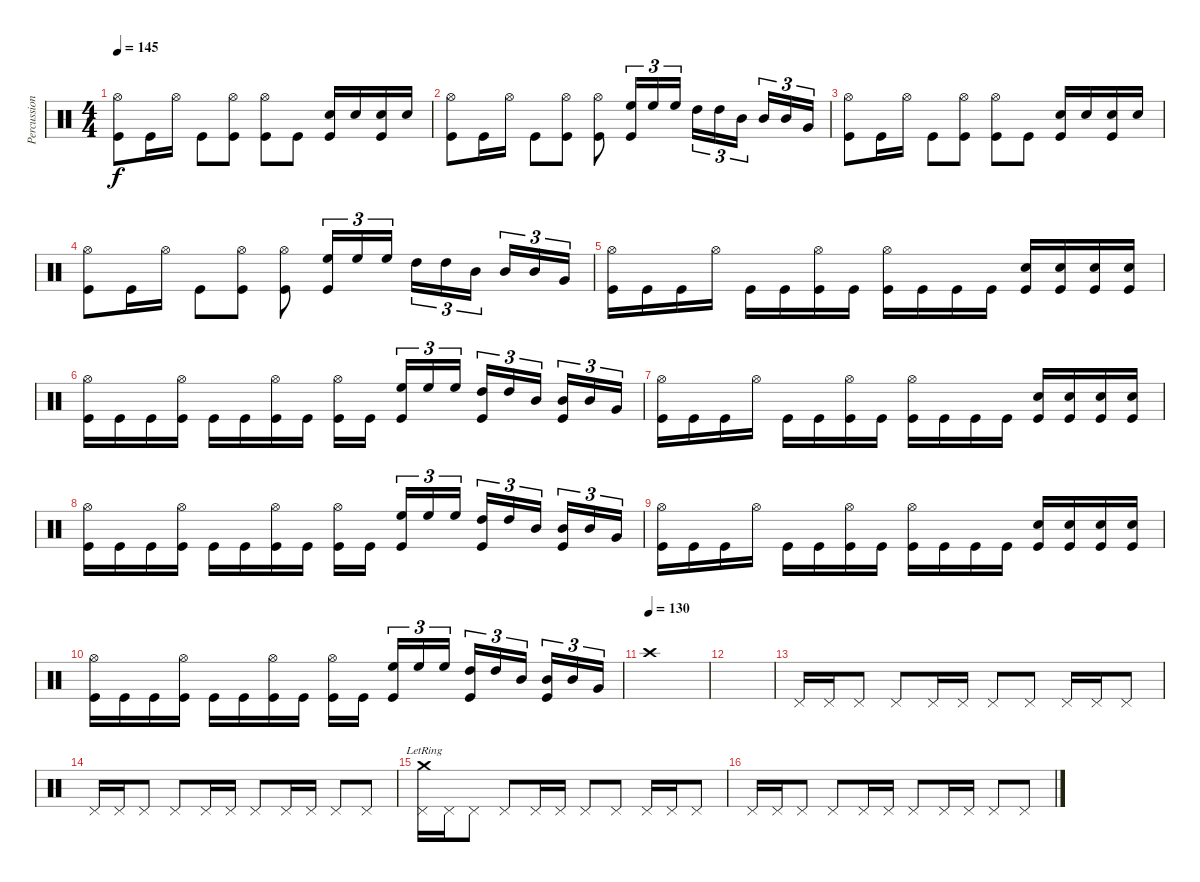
\track ("Percussions" "Percussion") {instrument percussion}
\staff {score}
\articulation defaults
\ts (4 4)
\tempo 145
\clef neutral
\ks c
("Hi-Hat (open)" "Kick (hit)").8{dy f} "Kick (hit)".16 "Hi-Hat (open)".16 "Kick (hit)".8 ("Hi-Hat (open)" "Kick (hit)").8 ("Hi-Hat (open)" "Kick (hit)").8 "Kick (hit)".8 ("Electric Snare (hit)" "Kick (hit)").16 "Electric Snare (hit)".16 ("Electric Snare (hit)" "Kick (hit)").16 "Electric Snare (hit)".16 |
("Hi-Hat (open)" "Kick (hit)").8 "Kick (hit)".16 "Hi-Hat (open)".16 "Kick (hit)".8 ("Hi-Hat (open)" "Kick (hit)").8 ("Hi-Hat (open)" "Kick (hit)").8 ("High Floor Tom (hit)" "Kick (hit)").16{tu (3 2)} "High Floor Tom (hit)".16{tu (3 2)} "High Floor Tom (hit)".16{tu (3 2)} "High Tom (hit)".16{tu (3 2)} "High Tom (hit)".16{tu (3 2)} "Mid Tom (hit)".16{tu (3 2)} "Mid Tom (hit)".16{tu (3 2)} "Mid Tom (hit)".16{tu (3 2)} "Very Low Tom (hit)".16{tu (3 2)} |
("Hi-Hat (open)" "Kick (hit)").8 "Kick (hit)".16 "Hi-Hat (open)".16 "Kick (hit)".8 ("Hi-Hat (open)" "Kick (hit)").8 ("Hi-Hat (open)" "Kick (hit)").8 "Kick (hit)".8 ("Electric Snare (hit)" "Kick (hit)").16 "Electric Snare (hit)".16 ("Electric Snare (hit)" "Kick (hit)").16 "Electric Snare (hit)".16 |
("Hi-Hat (open)" "Kick (hit)").8 "Kick (hit)".16 "Hi-Hat (open)".16 "Kick (hit)".8 ("Hi-Hat (open)" "Kick (hit)").8 ("Hi-Hat (open)" "Kick (hit)").8 ("High Floor Tom (hit)" "Kick (hit)").16{tu (3 2)} "High Floor Tom (hit)".16{tu (3 2)} "High Floor Tom (hit)".16{tu (3 2)} "High Tom (hit)".16{tu (3 2)} "High Tom (hit)".16{tu (3 2)} "Mid Tom (hit)".16{tu (3 2)} "Mid Tom (hit)".16{tu (3 2)} "Mid Tom (hit)".16{tu (3 2)} "Very Low Tom (hit)".16{tu (3 2)} |
("Hi-Hat (open)" "Kick (hit)").16 "Kick (hit)".16 "Kick (hit)".16 "Hi-Hat (open)".16 "Kick (hit)".16 "Kick (hit)".16 ("Hi-Hat (open)" "Kick (hit)").16 "Kick (hit)".16 ("Hi-Hat (open)" "Kick (hit)").16 "Kick (hit)".16 "Kick (hit)".16 "Kick (hit)".16 ("Electric Snare (hit)" "Kick (hit)").16 ("Electric Snare (hit)" "Kick (hit)").16 ("Electric Snare (hit)" "Kick (hit)").16 ("Electric Snare (hit)" "Kick (hit)").16 |
("Hi-Hat (open)" "Kick (hit)").16 "Kick (hit)".16 "Kick (hit)".16 ("Hi-Hat (open)" "Kick (hit)").16 "Kick (hit)".16 "Kick (hit)".16 ("Hi-Hat (open)" "Kick (hit)").16 "Kick (hit)".16 ("Hi-Hat (open)" "Kick (hit)").16 "Kick (hit)".16 ("High Floor Tom (hit)" "Kick (hit)").16{tu (3 2)} "High Floor Tom (hit)".16{tu (3 2)} "High Floor Tom (hit)".16{tu (3 2)} ("High Tom (hit)" "Kick (hit)").16{tu (3 2)} "High Tom (hit)".16{tu (3 2)} "Mid Tom (hit)".16{tu (3 2)} ("Mid Tom (hit)" "Kick (hit)").16{tu (3 2)} "Mid Tom (hit)".16{tu (3 2)} "Very Low Tom (hit)".16{tu (3 2)} |
("Hi-Hat (open)" "Kick (hit)").16 "Kick (hit)".16 "Kick (hit)".16 "Hi-Hat (open)".16 "Kick (hit)".16 "Kick (hit)".16 ("Hi-Hat (open)" "Kick (hit)").16 "Kick (hit)".16 ("Hi-Hat (open)" "Kick (hit)").16 "Kick (hit)".16 "Kick (hit)".16 "Kick (hit)".16 ("Electric Snare (hit)" "Kick (hit)").16 ("Electric Snare (hit)" "Kick (hit)").16 ("Electric Snare (hit)" "Kick (hit)").16 ("Electric Snare (hit)" "Kick (hit)").16 |
("Hi-Hat (open)" "Kick (hit)").16 "Kick (hit)".16 "Kick (hit)".16 ("Hi-Hat (open)" "Kick (hit)").16 "Kick (hit)".16 "Kick (hit)".16 ("Hi-Hat (open)" "Kick (hit)").16 "Kick (hit)".16 ("Hi-Hat (open)" "Kick (hit)").16 "Kick (hit)".16 ("High Floor Tom (hit)" "Kick (hit)").16{tu (3 2)} "High Floor Tom (hit)".16{tu (3 2)} "High Floor Tom (hit)".16{tu (3 2)} ("High Tom (hit)" "Kick (hit)").16{tu (3 2)} "High Tom (hit)".16{tu (3 2)} "Mid Tom (hit)".16{tu (3 2)} ("Mid Tom (hit)" "Kick (hit)").16{tu (3 2)} "Mid Tom (hit)".16{tu (3 2)} "Very Low Tom (hit)".16{tu (3 2)} |
("Hi-Hat (open)" "Kick (hit)").16 "Kick (hit)".16 "Kick (hit)".16 "Hi-Hat (open)".16 "Kick (hit)".16 "Kick (hit)".16 ("Hi-Hat (open)" "Kick (hit)").16 "Kick (hit)".16 ("Hi-Hat (open)" "Kick (hit)").16 "Kick (hit)".16 "Kick (hit)".16 "Kick (hit)".16 ("Electric Snare (hit)" "Kick (hit)").16 ("Electric Snare (hit)" "Kick (hit)").16 ("Electric Snare (hit)" "Kick (hit)").16 ("Electric Snare (hit)" "Kick (hit)").16 |
("Hi-Hat (open)" "Kick (hit)").16 "Kick (hit)".16 "Kick (hit)".16 ("Hi-Hat (open)" "Kick (hit)").16 "Kick (hit)".16 "Kick (hit)".16 ("Hi-Hat (open)" "Kick (hit)").16 "Kick (hit)".16 ("Hi-Hat (open)" "Kick (hit)").16 "Kick (hit)".16 ("High Floor Tom (hit)" "Kick (hit)").16{tu (3 2)} "High Floor Tom (hit)".16{tu (3 2)} "High Floor Tom (hit)".16{tu (3 2)} ("High Tom (hit)" "Kick (hit)").16{tu (3 2)} "High Tom (hit)".16{tu (3 2)} "Mid Tom (hit)".16{tu (3 2)} ("Mid Tom (hit)" "Kick (hit)").16{tu (3 2)} "Mid Tom (hit)".16{tu (3 2)} "Very Low Tom (hit)".16{tu (3 2)} |
\tempo (130)
"Crash high (hit)".1 |
|
"Pedal Hi-Hat (hit)".16 "Pedal Hi-Hat (hit)".16 "Pedal Hi-Hat (hit)".8 "Pedal Hi-Hat (hit)".8 "Pedal Hi-Hat (hit)".16 "Pedal Hi-Hat (hit)".16 "Pedal Hi-Hat (hit)".8 "Pedal Hi-Hat (hit)".8 "Pedal Hi-Hat (hit)".16 "Pedal Hi-Hat (hit)".16 "Pedal Hi-Hat (hit)".8 |
"Pedal Hi-Hat (hit)".16 "Pedal Hi-Hat (hit)".16 "Pedal Hi-Hat (hit)".8 "Pedal Hi-Hat (hit)".8 "Pedal Hi-Hat (hit)".16 "Pedal Hi-Hat (hit)".16 "Pedal Hi-Hat (hit)".8 "Pedal Hi-Hat (hit)".16 "Pedal Hi-Hat (hit)".16 "Pedal Hi-Hat (hit)".8 "Pedal Hi-Hat (hit)".8 |
("Pedal Hi-Hat (hit)" "Crash medium (hit)"{lr}).16 "Pedal Hi-Hat (hit)".16 "Pedal Hi-Hat (hit)".8 "Pedal Hi-Hat (hit)".8 "Pedal Hi-Hat (hit)".16 "Pedal Hi-Hat (hit)".16 "Pedal Hi-Hat (hit)".8 "Pedal Hi-Hat (hit)".8 "Pedal Hi-Hat (hit)".16 "Pedal Hi-Hat (hit)".16 "Pedal Hi-Hat (hit)".8 |
"Pedal Hi-Hat (hit)".16 "Pedal Hi-Hat (hit)".16 "Pedal Hi-Hat (hit)".8 "Pedal Hi-Hat (hit)".8 "Pedal Hi-Hat (hit)".16 "Pedal Hi-Hat (hit)".16 "Pedal Hi-Hat (hit)".8 "Pedal Hi-Hat (hit)".16 "Pedal Hi-Hat (hit)".16 "Pedal Hi-Hat (hit)".8 "Pedal Hi-Hat (hit)".8
